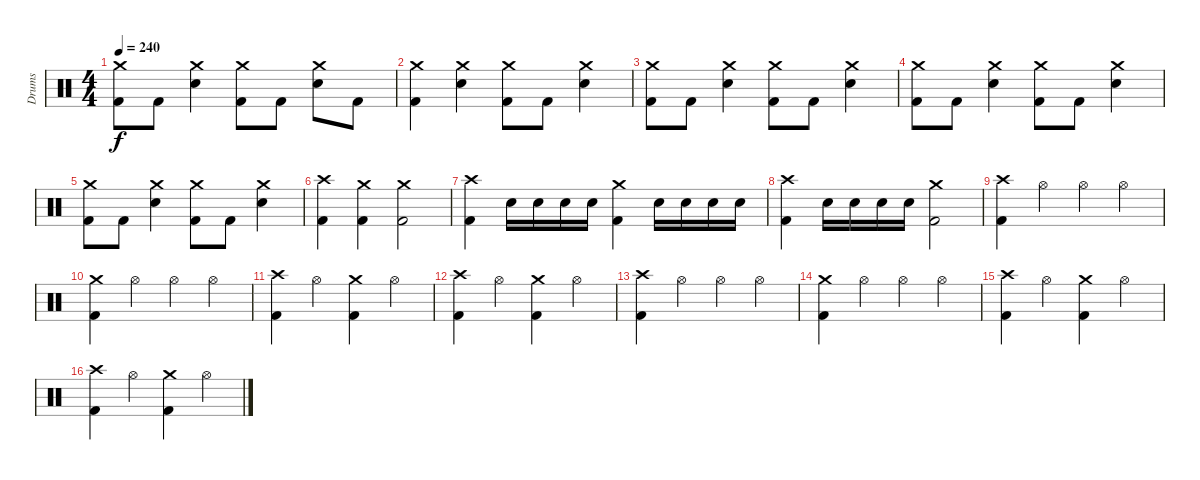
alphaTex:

\track ("Drums" "Drums") {instrument percussion}
\staff {score}
\articulation defaults
\ts (4 4)
\tempo 240
\clef neutral
\ks c
("Crash medium (hit)" "Kick (hit) 2").8{dy f} "Kick (hit) 2".8 ("Crash medium (hit)" "Snare (hit) 2").4 ("Crash medium (hit)" "Kick (hit) 2").8 "Kick (hit) 2".8 ("Crash medium (hit)" "Snare (hit) 2").8 "Kick (hit) 2".8 |
("Crash medium (hit)" "Kick (hit) 2").4 ("Crash medium (hit)" "Snare (hit) 2").4 ("Crash medium (hit)" "Kick (hit) 2").8 "Kick (hit) 2".8 ("Crash medium (hit)" "Snare (hit) 2").4 |
("Crash medium (hit)" "Kick (hit) 2").8 "Kick (hit) 2".8 ("Crash medium (hit)" "Snare (hit) 2").4 ("Crash medium (hit)" "Kick (hit) 2").8 "Kick (hit) 2".8 ("Crash medium (hit)" "Snare (hit) 2").4 |
("Crash medium (hit)" "Kick (hit) 2").8 "Kick (hit) 2".8 ("Crash medium (hit)" "Snare (hit) 2").4 ("Crash medium (hit)" "Kick (hit) 2").8 "Kick (hit) 2".8 ("Crash medium (hit)" "Snare (hit) 2").4 |
("Crash medium (hit)" "Kick (hit) 2").8 "Kick (hit) 2".8 ("Crash medium (hit)" "Snare (hit) 2").4 ("Crash medium (hit)" "Kick (hit) 2").8 "Kick (hit) 2".8 ("Crash medium (hit)" "Snare (hit) 2").4 |
("Crash high (hit)" "Kick (hit) 2").4 ("Crash medium (hit)" "Kick (hit) 2").4 ("Crash medium (hit)" "Kick (hit) 2").2 |
("Crash high (hit)" "Kick (hit) 2").4 "Snare (hit) 2".16 "Snare (hit) 2".16 "Snare (hit) 2".16 "Snare (hit) 2".16 ("Crash medium (hit)" "Kick (hit) 2").4 "Snare (hit) 2".16 "Snare (hit) 2".16 "Snare (hit) 2".16 "Snare (hit) 2".16 |
("Crash high (hit)" "Kick (hit) 2").4 "Snare (hit) 2".16 "Snare (hit) 2".16 "Snare (hit) 2".16 "Snare (hit) 2".16 ("Crash medium (hit)" "Kick (hit) 2").2 |
("Crash high (hit)" "Kick (hit) 2").4 "Hi-Hat (open)".4 "Hi-Hat (open)".4 "Hi-Hat (open)".4 |
("Crash medium (hit)" "Kick (hit) 2").4 "Hi-Hat (open)".4 "Hi-Hat (open)".4 "Hi-Hat (open)".4 |
("Crash high (hit)" "Kick (hit) 2").4 "Hi-Hat (open)".4 ("Crash medium (hit)" "Kick (hit) 2").4 "Hi-Hat (open)".4 |
("Crash high (hit)" "Kick (hit) 2").4 "Hi-Hat (open)".4 ("Crash medium (hit)" "Kick (hit) 2").4 "Hi-Hat (open)".4 |
("Crash high (hit)" "Kick (hit) 2").4 "Hi-Hat (open)".4 "Hi-Hat (open)".4 "Hi-Hat (open)".4 |
("Crash medium (hit)" "Kick (hit) 2").4 "Hi-Hat (open)".4 "Hi-Hat (open)".4 "Hi-Hat (open)".4 |
("Crash high (hit)" "Kick (hit) 2").4 "Hi-Hat (open)".4 ("Crash medium (hit)" "Kick (hit) 2").4 "Hi-Hat (open)".4 |
("Crash high (hit)" "Kick (hit) 2").4 "Hi-Hat (open)".4 ("Crash medium (hit)" "Kick (hit) 2").4 "Hi-Hat (open)".4
